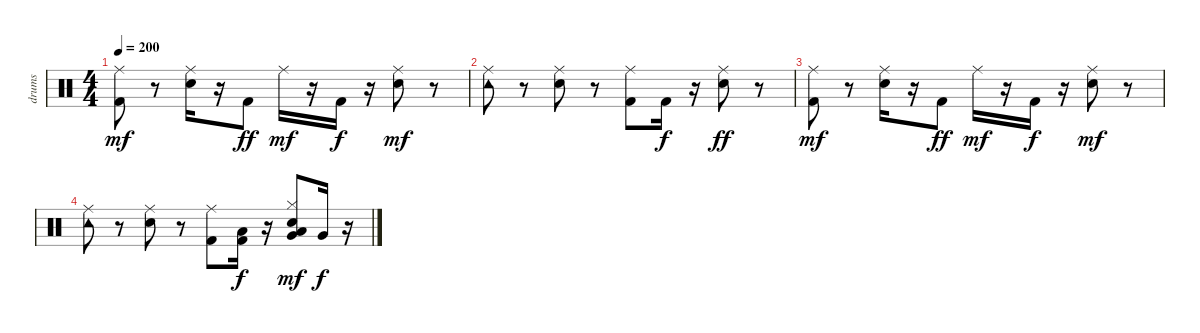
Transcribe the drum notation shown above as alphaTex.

\track ("drums" "drums") {instrument percussion}
\staff {score}
\articulation defaults
\ts (4 4)
\tempo 200
\clef neutral
\ks c
("Kick (hit) 2" "Ride (middle)").8{dy mf volume 3} r.8 ("Snare (hit) 2" "Ride (middle)").16 r.16 "Kick (hit) 2".8{dy ff} "Ride (middle)".16{dy mf} r.16 "Kick (hit) 2".16{dy f} r.16 ("Snare (hit) 2" "Ride (middle)").8{dy mf} r.8 |
("Tambourine (hit)" "Ride (middle)").8 r.8 ("Snare (hit) 2" "Ride (middle)").8 r.8 ("Kick (hit) 2" "Ride (middle)").8 "Kick (hit) 2".16{dy f} r.16 ("Snare (hit) 2" "Ride (middle)").8{dy ff} r.8 |
("Kick (hit) 2" "Ride (middle)").8{dy mf volume 2} r.8 ("Snare (hit) 2" "Ride (middle)").16 r.16 "Kick (hit) 2".8{dy ff} "Ride (middle)".16{dy mf} r.16 "Kick (hit) 2".16{dy f} r.16 ("Snare (hit) 2" "Ride (middle)").8{dy mf} r.8 |
("Tambourine (hit)" "Ride (middle)").8 r.8 ("Snare (hit) 2" "Ride (middle)").8 r.8 ("Kick (hit) 2" "Ride (middle)").8 ("Kick (hit) 2" "Low Tom (hit)").16{dy f} r.16 ("Snare (hit) 2" "Hi-Hat (closed)" "Low Tom (hit)" "Very Low Tom (hit)").8{dy mf} "Very Low Tom (hit)".16{dy f} r.16
